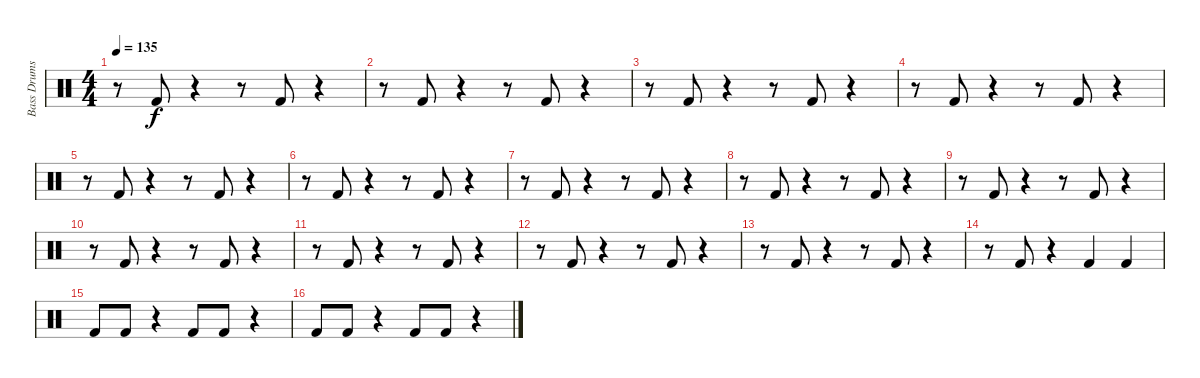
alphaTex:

\track ("Bass Drums" "Bass Drums") {instrument percussion}
\staff {score}
\articulation defaults
\ts (4 4)
\tempo 135
\clef neutral
\ks c
r.8{dy f} "Kick (hit) 2".8 r.4 r.8 "Kick (hit) 2".8 r.4 |
r.8 "Kick (hit) 2".8 r.4 r.8 "Kick (hit) 2".8 r.4 |
r.8 "Kick (hit) 2".8 r.4 r.8 "Kick (hit) 2".8 r.4 |
r.8 "Kick (hit) 2".8 r.4 r.8 "Kick (hit) 2".8 r.4 |
r.8 "Kick (hit) 2".8 r.4 r.8 "Kick (hit) 2".8 r.4 |
r.8 "Kick (hit) 2".8 r.4 r.8 "Kick (hit) 2".8 r.4 |
r.8 "Kick (hit) 2".8 r.4 r.8 "Kick (hit) 2".8 r.4 |
r.8 "Kick (hit) 2".8 r.4 r.8 "Kick (hit) 2".8 r.4 |
r.8 "Kick (hit) 2".8 r.4 r.8 "Kick (hit) 2".8 r.4 |
r.8 "Kick (hit) 2".8 r.4 r.8 "Kick (hit) 2".8 r.4 |
r.8 "Kick (hit) 2".8 r.4 r.8 "Kick (hit) 2".8 r.4 |
r.8 "Kick (hit) 2".8 r.4 r.8 "Kick (hit) 2".8 r.4 |
r.8 "Kick (hit) 2".8 r.4 r.8 "Kick (hit) 2".8 r.4 |
r.8 "Kick (hit) 2".8 r.4 "Kick (hit) 2".4 "Kick (hit) 2".4 |
"Kick (hit) 2".8 "Kick (hit) 2".8 r.4 "Kick (hit) 2".8 "Kick (hit) 2".8 r.4 |
"Kick (hit) 2".8 "Kick (hit) 2".8 r.4 "Kick (hit) 2".8 "Kick (hit) 2".8 r.4
